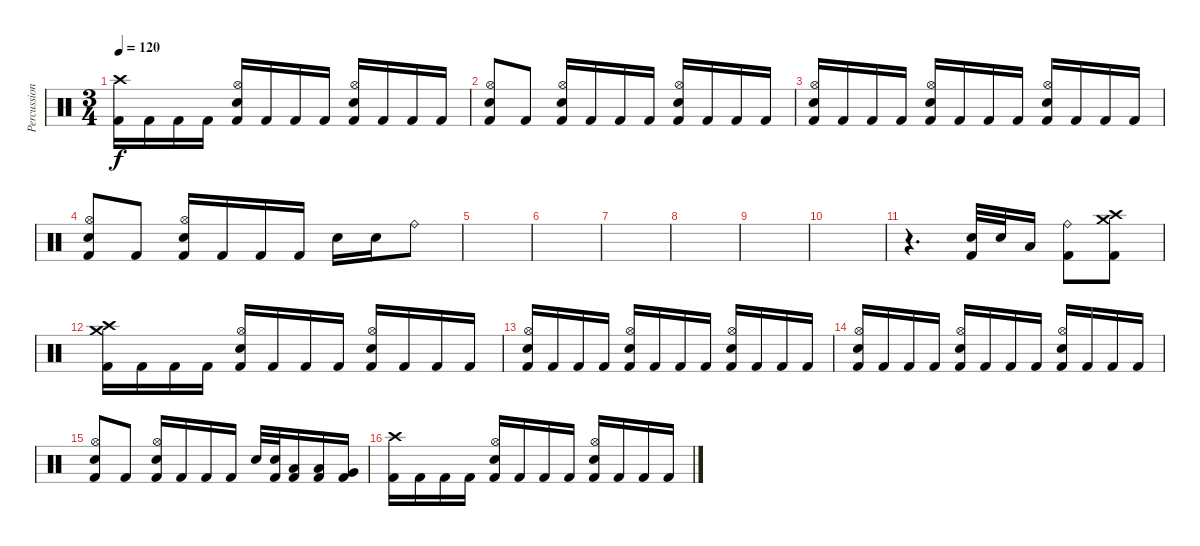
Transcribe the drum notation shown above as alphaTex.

\track ("Percussion" "Percussion") {instrument percussion}
\staff {score}
\articulation defaults
\ts (3 4)
\tempo 120
\clef neutral
\ks c
("Crash high (hit)" "Kick (hit) 2").16{dy f} "Kick (hit) 2".16 "Kick (hit) 2".16 "Kick (hit) 2".16 ("Hi-Hat (open)" "Electric Snare (hit)" "Kick (hit) 2").16 "Kick (hit) 2".16 "Kick (hit) 2".16 "Kick (hit) 2".16 ("Hi-Hat (open)" "Electric Snare (hit)" "Kick (hit) 2").16 "Kick (hit) 2".16 "Kick (hit) 2".16 "Kick (hit) 2".16 |
("Hi-Hat (open)" "Electric Snare (hit)" "Kick (hit) 2").8 "Kick (hit) 2".8 ("Hi-Hat (open)" "Electric Snare (hit)" "Kick (hit) 2").16 "Kick (hit) 2".16 "Kick (hit) 2".16 "Kick (hit) 2".16 ("Hi-Hat (open)" "Electric Snare (hit)" "Kick (hit) 2").16 "Kick (hit) 2".16 "Kick (hit) 2".16 "Kick (hit) 2".16 |
("Hi-Hat (open)" "Electric Snare (hit)" "Kick (hit) 2").16 "Kick (hit) 2".16 "Kick (hit) 2".16 "Kick (hit) 2".16 ("Hi-Hat (open)" "Electric Snare (hit)" "Kick (hit) 2").16 "Kick (hit) 2".16 "Kick (hit) 2".16 "Kick (hit) 2".16 ("Hi-Hat (open)" "Electric Snare (hit)" "Kick (hit) 2").16 "Kick (hit) 2".16 "Kick (hit) 2".16 "Kick (hit) 2".16 |
("Hi-Hat (open)" "Electric Snare (hit)" "Kick (hit) 2").8 "Kick (hit) 2".8 ("Hi-Hat (open)" "Electric Snare (hit)" "Kick (hit) 2").16 "Kick (hit) 2".16 "Kick (hit) 2".16 "Kick (hit) 2".16 "Electric Snare (hit)".16 "Electric Snare (hit)".16 "Ride (bell)".8 |
|
|
|
|
|
|
r.4{d} ("Electric Snare (hit)" "Kick (hit) 2").32 "Electric Snare (hit)".32 "Low Tom (hit)".16 ("Ride (bell)" "Kick (hit) 2").8 ("Crash high (hit)" "Crash medium (hit)" "Kick (hit) 2").8 |
("Crash high (hit)" "Crash medium (hit)" "Kick (hit) 2").16 "Kick (hit) 2".16 "Kick (hit) 2".16 "Kick (hit) 2".16 ("Hi-Hat (open)" "Electric Snare (hit)" "Kick (hit) 2").16 "Kick (hit) 2".16 "Kick (hit) 2".16 "Kick (hit) 2".16 ("Hi-Hat (open)" "Electric Snare (hit)" "Kick (hit) 2").16 "Kick (hit) 2".16 "Kick (hit) 2".16 "Kick (hit) 2".16 |
("Hi-Hat (open)" "Electric Snare (hit)" "Kick (hit) 2").16 "Kick (hit) 2".16 "Kick (hit) 2".16 "Kick (hit) 2".16 ("Hi-Hat (open)" "Electric Snare (hit)" "Kick (hit) 2").16 "Kick (hit) 2".16 "Kick (hit) 2".16 "Kick (hit) 2".16 ("Hi-Hat (open)" "Electric Snare (hit)" "Kick (hit) 2").16 "Kick (hit) 2".16 "Kick (hit) 2".16 "Kick (hit) 2".16 |
("Hi-Hat (open)" "Electric Snare (hit)" "Kick (hit) 2").16 "Kick (hit) 2".16 "Kick (hit) 2".16 "Kick (hit) 2".16 ("Hi-Hat (open)" "Electric Snare (hit)" "Kick (hit) 2").16 "Kick (hit) 2".16 "Kick (hit) 2".16 "Kick (hit) 2".16 ("Hi-Hat (open)" "Electric Snare (hit)" "Kick (hit) 2").16 "Kick (hit) 2".16 "Kick (hit) 2".16 "Kick (hit) 2".16 |
("Hi-Hat (open)" "Electric Snare (hit)" "Kick (hit) 2").8 "Kick (hit) 2".8 ("Hi-Hat (open)" "Electric Snare (hit)" "Kick (hit) 2").16 "Kick (hit) 2".16 "Kick (hit) 2".16 "Kick (hit) 2".16 "Electric Snare (hit)".32 ("Electric Snare (hit)" "Kick (hit) 2").32 ("Low Tom (hit)" "Kick (hit) 2").16 ("Low Tom (hit)" "Kick (hit) 2").16 ("Very Low Tom (hit)" "Kick (hit) 2").16 |
("Crash high (hit)" "Kick (hit) 2").16 "Kick (hit) 2".16 "Kick (hit) 2".16 "Kick (hit) 2".16 ("Hi-Hat (open)" "Electric Snare (hit)" "Kick (hit) 2").16 "Kick (hit) 2".16 "Kick (hit) 2".16 "Kick (hit) 2".16 ("Hi-Hat (open)" "Electric Snare (hit)" "Kick (hit) 2").16 "Kick (hit) 2".16 "Kick (hit) 2".16 "Kick (hit) 2".16
